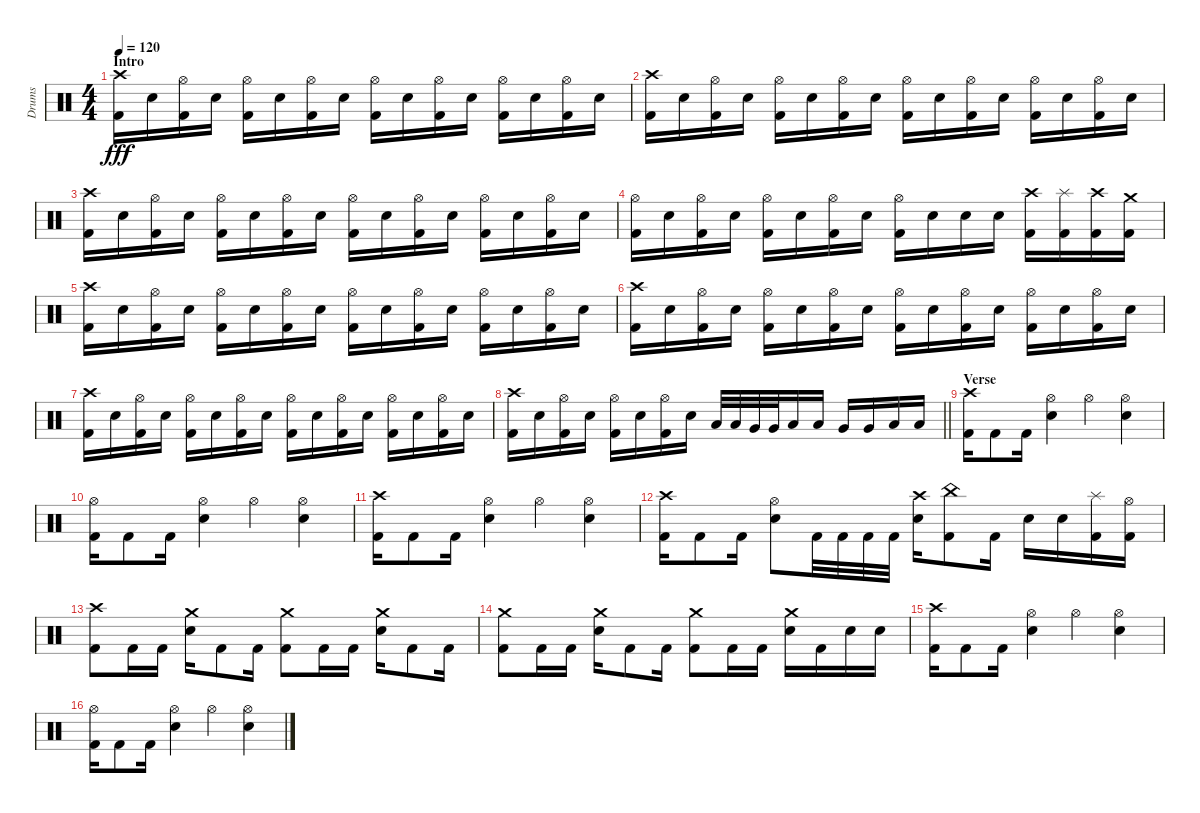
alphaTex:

\track ("Drums" "Drums") {instrument percussion}
\staff {score}
\articulation defaults
\ts (4 4)
\section ("" "Intro")
\tempo 120
\clef neutral
\ks c
("Crash high (hit)" "Kick (hit) 2").16{dy fff} "Electric Snare (hit)".16 ("Hi-Hat (open)" "Kick (hit) 2").16 "Electric Snare (hit)".16 ("Hi-Hat (open)" "Kick (hit) 2").16 "Electric Snare (hit)".16 ("Hi-Hat (open)" "Kick (hit) 2").16 "Electric Snare (hit)".16 ("Hi-Hat (open)" "Kick (hit) 2").16 "Electric Snare (hit)".16 ("Hi-Hat (open)" "Kick (hit) 2").16 "Electric Snare (hit)".16 ("Hi-Hat (open)" "Kick (hit) 2").16 "Electric Snare (hit)".16 ("Hi-Hat (open)" "Kick (hit) 2").16 "Electric Snare (hit)".16 |
("Crash high (hit)" "Kick (hit) 2").16 "Electric Snare (hit)".16 ("Hi-Hat (open)" "Kick (hit) 2").16 "Electric Snare (hit)".16 ("Hi-Hat (open)" "Kick (hit) 2").16 "Electric Snare (hit)".16 ("Hi-Hat (open)" "Kick (hit) 2").16 "Electric Snare (hit)".16 ("Hi-Hat (open)" "Kick (hit) 2").16 "Electric Snare (hit)".16 ("Hi-Hat (open)" "Kick (hit) 2").16 "Electric Snare (hit)".16 ("Hi-Hat (open)" "Kick (hit) 2").16 "Electric Snare (hit)".16 ("Hi-Hat (open)" "Kick (hit) 2").16 "Electric Snare (hit)".16 |
("Crash high (hit)" "Kick (hit) 2").16 "Electric Snare (hit)".16 ("Hi-Hat (open)" "Kick (hit) 2").16 "Electric Snare (hit)".16 ("Hi-Hat (open)" "Kick (hit) 2").16 "Electric Snare (hit)".16 ("Hi-Hat (open)" "Kick (hit) 2").16 "Electric Snare (hit)".16 ("Hi-Hat (open)" "Kick (hit) 2").16 "Electric Snare (hit)".16 ("Hi-Hat (open)" "Kick (hit) 2").16 "Electric Snare (hit)".16 ("Hi-Hat (open)" "Kick (hit) 2").16 "Electric Snare (hit)".16 ("Hi-Hat (open)" "Kick (hit) 2").16 "Electric Snare (hit)".16 |
("Hi-Hat (open)" "Kick (hit) 2").16 "Electric Snare (hit)".16 ("Hi-Hat (open)" "Kick (hit) 2").16 "Electric Snare (hit)".16 ("Hi-Hat (open)" "Kick (hit) 2").16 "Electric Snare (hit)".16 ("Hi-Hat (open)" "Kick (hit) 2").16 "Electric Snare (hit)".16 ("Hi-Hat (open)" "Kick (hit) 2").16 "Electric Snare (hit)".16 "Electric Snare (hit)".16 "Electric Snare (hit)".16 ("Crash high (hit)" "Kick (hit) 2").16 ("Splash (hit)" "Kick (hit) 2").16 ("Crash high (hit)" "Kick (hit) 2").16 ("Crash medium (hit)" "Kick (hit) 2").16 |
("Crash high (hit)" "Kick (hit) 2").16 "Electric Snare (hit)".16 ("Hi-Hat (open)" "Kick (hit) 2").16 "Electric Snare (hit)".16 ("Hi-Hat (open)" "Kick (hit) 2").16 "Electric Snare (hit)".16 ("Hi-Hat (open)" "Kick (hit) 2").16 "Electric Snare (hit)".16 ("Hi-Hat (open)" "Kick (hit) 2").16 "Electric Snare (hit)".16 ("Hi-Hat (open)" "Kick (hit) 2").16 "Electric Snare (hit)".16 ("Hi-Hat (open)" "Kick (hit) 2").16 "Electric Snare (hit)".16 ("Hi-Hat (open)" "Kick (hit) 2").16 "Electric Snare (hit)".16 |
("Crash high (hit)" "Kick (hit) 2").16 "Electric Snare (hit)".16 ("Hi-Hat (open)" "Kick (hit) 2").16 "Electric Snare (hit)".16 ("Hi-Hat (open)" "Kick (hit) 2").16 "Electric Snare (hit)".16 ("Hi-Hat (open)" "Kick (hit) 2").16 "Electric Snare (hit)".16 ("Hi-Hat (open)" "Kick (hit) 2").16 "Electric Snare (hit)".16 ("Hi-Hat (open)" "Kick (hit) 2").16 "Electric Snare (hit)".16 ("Hi-Hat (open)" "Kick (hit) 2").16 "Electric Snare (hit)".16 ("Hi-Hat (open)" "Kick (hit) 2").16 "Electric Snare (hit)".16 |
("Crash high (hit)" "Kick (hit) 2").16 "Electric Snare (hit)".16 ("Hi-Hat (open)" "Kick (hit) 2").16 "Electric Snare (hit)".16 ("Hi-Hat (open)" "Kick (hit) 2").16 "Electric Snare (hit)".16 ("Hi-Hat (open)" "Kick (hit) 2").16 "Electric Snare (hit)".16 ("Hi-Hat (open)" "Kick (hit) 2").16 "Electric Snare (hit)".16 ("Hi-Hat (open)" "Kick (hit) 2").16 "Electric Snare (hit)".16 ("Hi-Hat (open)" "Kick (hit) 2").16 "Electric Snare (hit)".16 ("Hi-Hat (open)" "Kick (hit) 2").16 "Electric Snare (hit)".16 |
\barLineRight lightlight
("Crash high (hit)" "Kick (hit) 2").16 "Electric Snare (hit)".16 ("Hi-Hat (open)" "Kick (hit) 2").16 "Electric Snare (hit)".16 ("Hi-Hat (open)" "Kick (hit) 2").16 "Electric Snare (hit)".16 ("Hi-Hat (open)" "Kick (hit) 2").16 "Electric Snare (hit)".16 "Low Tom (hit)".32 "Low Tom (hit)".32 "Very Low Tom (hit)".32 "Very Low Tom (hit)".32 "Low Tom (hit)".16 "Low Tom (hit)".16 "Very Low Tom (hit)".16 "Very Low Tom (hit)".16 "Low Floor Tom (hit)".16 "Low Floor Tom (hit)".16 |
\section ("" "Verse")
("Crash high (hit)" "Kick (hit) 2").16 "Kick (hit) 2".8 "Kick (hit) 2".16 ("Hi-Hat (open)" "Electric Snare (hit)").4 "Hi-Hat (open)".4 ("Hi-Hat (open)" "Electric Snare (hit)").4 |
("Hi-Hat (open)" "Kick (hit) 2").16 "Kick (hit) 2".8 "Kick (hit) 2".16 ("Hi-Hat (open)" "Electric Snare (hit)").4 "Hi-Hat (open)".4 ("Hi-Hat (open)" "Electric Snare (hit)").4 |
("Crash high (hit)" "Kick (hit) 2").16 "Kick (hit) 2".8 "Kick (hit) 2".16 ("Hi-Hat (open)" "Electric Snare (hit)").4 "Hi-Hat (open)".4 ("Hi-Hat (open)" "Electric Snare (hit)").4 |
("Crash high (hit)" "Kick (hit) 2").16 "Kick (hit) 2".8 "Kick (hit) 2".16 ("Hi-Hat (open)" "Electric Snare (hit)").8 "Kick (hit) 2".32 "Kick (hit) 2".32 "Kick (hit) 2".32 "Kick (hit) 2".32 ("Crash high (hit)" "Electric Snare (hit)").16 ("China (hit)" "Kick (hit) 2").8 "Kick (hit) 2".16 "Electric Snare (hit)".16 "Electric Snare (hit)".16 ("Splash (hit)" "Kick (hit) 2").16 ("Hi-Hat (open)" "Kick (hit) 2").16 |
("Crash high (hit)" "Kick (hit) 2").8 "Kick (hit) 2".16 "Kick (hit) 2".16 ("Crash medium (hit)" "Electric Snare (hit)").16 "Kick (hit) 2".8 "Kick (hit) 2".16 ("Crash medium (hit)" "Kick (hit) 2").8 "Kick (hit) 2".16 "Kick (hit) 2".16 ("Crash medium (hit)" "Electric Snare (hit)").16 "Kick (hit) 2".8 "Kick (hit) 2".16 |
("Crash medium (hit)" "Kick (hit) 2").8 "Kick (hit) 2".16 "Kick (hit) 2".16 ("Crash medium (hit)" "Electric Snare (hit)").16 "Kick (hit) 2".8 "Kick (hit) 2".16 ("Crash medium (hit)" "Kick (hit) 2").8 "Kick (hit) 2".16 "Kick (hit) 2".16 ("Crash medium (hit)" "Electric Snare (hit)").16 "Kick (hit) 2".16 "Electric Snare (hit)".16 "Electric Snare (hit)".16 |
("Crash high (hit)" "Kick (hit) 2").16 "Kick (hit) 2".8 "Kick (hit) 2".16 ("Hi-Hat (open)" "Electric Snare (hit)").4 "Hi-Hat (open)".4 ("Hi-Hat (open)" "Electric Snare (hit)").4 |
("Hi-Hat (open)" "Kick (hit) 2").16 "Kick (hit) 2".8 "Kick (hit) 2".16 ("Hi-Hat (open)" "Electric Snare (hit)").4 "Hi-Hat (open)".4 ("Hi-Hat (open)" "Electric Snare (hit)").4
